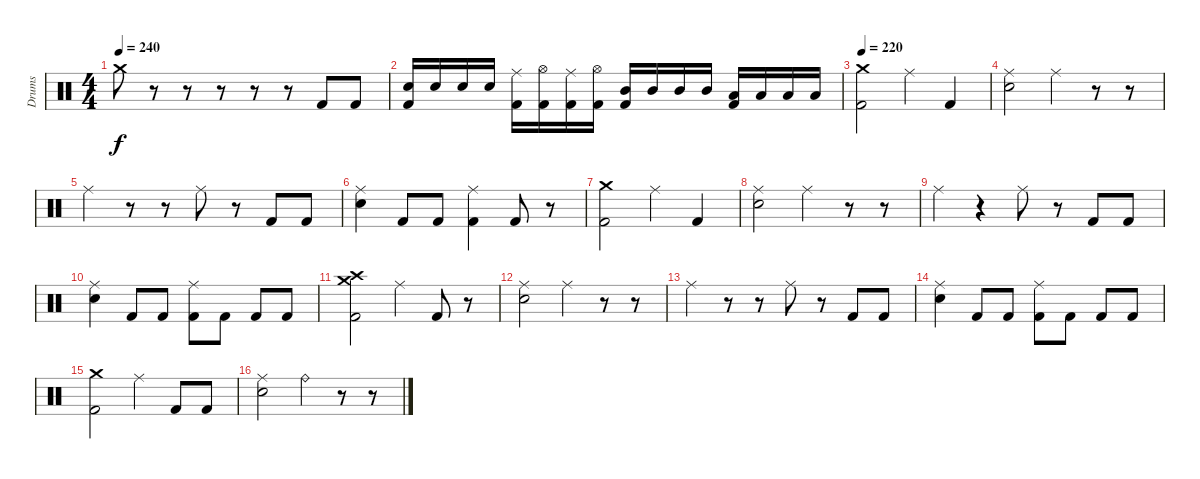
\track ("Drums" "Drums") {instrument percussion}
\staff {score}
\articulation defaults
\ts (4 4)
\tempo 240
\clef neutral
\ks c "Crash medium (hit)".8{dy f}
r.8 r.8 r.8 r.8 r.8 "Kick (hit) 2".8 "Kick (hit) 2".8 |
("Electric Snare (hit)" "Kick (hit) 2").16 "Electric Snare (hit)".16 "Electric Snare (hit)".16 "Electric Snare (hit)".16 ("Ride (middle)" "Kick (hit) 2").16 ("Hi-Hat (open)" "Kick (hit) 2").16 ("Ride (middle)" "Kick (hit) 2").16 ("Hi-Hat (open)" "Kick (hit) 2").16 ("Mid Tom (hit)" "Kick (hit) 2").16 "Mid Tom (hit)".16 "Mid Tom (hit)".16 "Mid Tom (hit)".16 ("Low Tom (hit)" "Kick (hit) 2").16 "Low Tom (hit)".16 "Low Tom (hit)".16 "Low Tom (hit)".16 |
\tempo 220
("Crash medium (hit)" "Kick (hit) 2").2 "Ride (middle)".4 "Kick (hit) 2".4 |
("Ride (middle)" "Electric Snare (hit)").2 "Ride (middle)".4 r.8 r.8 |
"Ride (middle)".4 r.8 r.8 "Ride (middle)".8 r.8 "Kick (hit) 2".8 "Kick (hit) 2".8 |
("Ride (middle)" "Electric Snare (hit)").4 "Kick (hit) 2".8 "Kick (hit) 2".8 ("Ride (middle)" "Kick (hit) 2").4 "Kick (hit) 2".8 r.8 |
("Crash medium (hit)" "Kick (hit) 2").2 "Ride (middle)".4 "Kick (hit) 2".4 |
("Ride (middle)" "Electric Snare (hit)").2 "Ride (middle)".4 r.8 r.8 |
"Ride (middle)".4 r.4 "Ride (middle)".8 r.8 "Kick (hit) 2".8 "Kick (hit) 2".8 |
("Ride (middle)" "Electric Snare (hit)").4 "Kick (hit) 2".8 "Kick (hit) 2".8 ("Ride (middle)" "Kick (hit) 2").8 "Kick (hit) 2".8 "Kick (hit) 2".8 "Kick (hit) 2".8 |
("Crash medium (hit)" "Crash high (hit)" "Kick (hit) 2").2 "Ride (middle)".4 "Kick (hit) 2".8 r.8 |
("Ride (middle)" "Electric Snare (hit)").2 "Ride (middle)".4 r.8 r.8 |
"Ride (middle)".4 r.8 r.8 "Ride (middle)".8 r.8 "Kick (hit) 2".8 "Kick (hit) 2".8 |
("Ride (middle)" "Electric Snare (hit)").4 "Kick (hit) 2".8 "Kick (hit) 2".8 ("Ride (middle)" "Kick (hit) 2").8 "Kick (hit) 2".8 "Kick (hit) 2".8 "Kick (hit) 2".8 |
("Crash medium (hit)" "Kick (hit) 2").2 "Ride (middle)".4 "Kick (hit) 2".8 "Kick (hit) 2".8 |
("Ride (middle)" "Electric Snare (hit)").2 "Ride (bell)".4 r.8 r.8
